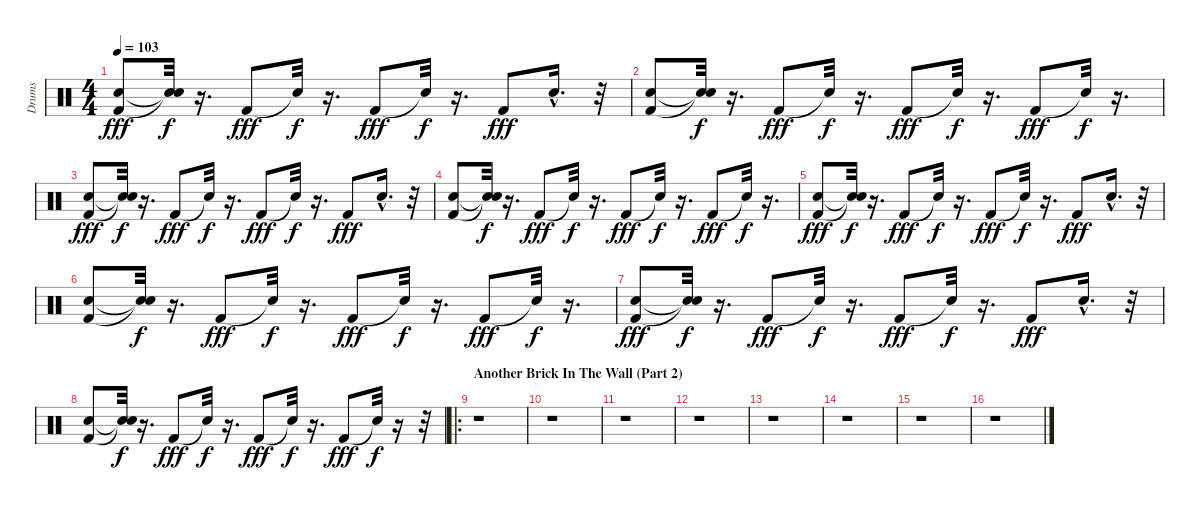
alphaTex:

\track ("Drums" "Drums") {instrument percussion}
\staff {score}
\articulation defaults
\ts (4 4)
\tempo 103
\clef neutral
\ks c
("Kick (hit) 2" "Electric Snare (hit)").8{dy fff} ("Snare (hit)"{t} "Snare (hit)"{t}).32{dy f} r.16{d} "Kick (hit) 2".8{dy fff} "Snare (hit)"{t}.32{dy f} r.16{d} "Kick (hit) 2".8{dy fff} "Snare (hit)"{t}.32{dy f} r.16{d} "Kick (hit) 2".8{dy fff} "Electric Snare (hit)"{hac}.16{d} r.32 |
("Kick (hit) 2" "Electric Snare (hit)").8 ("Snare (hit)"{t} "Snare (hit)"{t}).32{dy f} r.16{d} "Kick (hit) 2".8{dy fff} "Snare (hit)"{t}.32{dy f} r.16{d} "Kick (hit) 2".8{dy fff} "Snare (hit)"{t}.32{dy f} r.16{d} "Kick (hit) 2".8{dy fff} "Snare (hit)"{t}.32{dy f} r.16{d} |
("Kick (hit) 2" "Electric Snare (hit)").8{dy fff} ("Snare (hit)"{t} "Snare (hit)"{t}).32{dy f} r.16{d} "Kick (hit) 2".8{dy fff} "Snare (hit)"{t}.32{dy f} r.16{d} "Kick (hit) 2".8{dy fff} "Snare (hit)"{t}.32{dy f} r.16{d} "Kick (hit) 2".8{dy fff} "Electric Snare (hit)"{hac}.16{d} r.32 |
("Kick (hit) 2" "Electric Snare (hit)").8 ("Snare (hit)"{t} "Snare (hit)"{t}).32{dy f} r.16{d} "Kick (hit) 2".8{dy fff} "Snare (hit)"{t}.32{dy f} r.16{d} "Kick (hit) 2".8{dy fff} "Snare (hit)"{t}.32{dy f} r.16{d} "Kick (hit) 2".8{dy fff} "Snare (hit)"{t}.32{dy f} r.16{d} |
("Kick (hit) 2" "Electric Snare (hit)").8{dy fff} ("Snare (hit)"{t} "Snare (hit)"{t}).32{dy f} r.16{d} "Kick (hit) 2".8{dy fff} "Snare (hit)"{t}.32{dy f} r.16{d} "Kick (hit) 2".8{dy fff} "Snare (hit)"{t}.32{dy f} r.16{d} "Kick (hit) 2".8{dy fff} "Electric Snare (hit)"{hac}.16{d} r.32 |
("Kick (hit) 2" "Electric Snare (hit)").8 ("Snare (hit)"{t} "Snare (hit)"{t}).32{dy f} r.16{d} "Kick (hit) 2".8{dy fff} "Snare (hit)"{t}.32{dy f} r.16{d} "Kick (hit) 2".8{dy fff} "Snare (hit)"{t}.32{dy f} r.16{d} "Kick (hit) 2".8{dy fff} "Snare (hit)"{t}.32{dy f} r.16{d} |
("Kick (hit) 2" "Electric Snare (hit)").8{dy fff} ("Snare (hit)"{t} "Snare (hit)"{t}).32{dy f} r.16{d} "Kick (hit) 2".8{dy fff} "Snare (hit)"{t}.32{dy f} r.16{d} "Kick (hit) 2".8{dy fff} "Snare (hit)"{t}.32{dy f} r.16{d} "Kick (hit) 2".8{dy fff} "Electric Snare (hit)"{hac}.16{d} r.32 |
("Kick (hit) 2" "Electric Snare (hit)").8 ("Snare (hit)"{t} "Snare (hit)"{t}).32{dy f} r.16{d} "Kick (hit) 2".8{dy fff} "Snare (hit)"{t}.32{dy f} r.16{d} "Kick (hit) 2".8{dy fff} "Snare (hit)"{t}.32{dy f} r.16{d} "Kick (hit) 2".8{dy fff} "Snare (hit)"{t}.32{dy f} r.16 r.32 |
\ro
\section ("" "Another Brick In The Wall (Part 2)")
r.1 |
r.1 |
r.1 |
r.1 |
r.1 |
r.1 |
r.1 |
r.1
